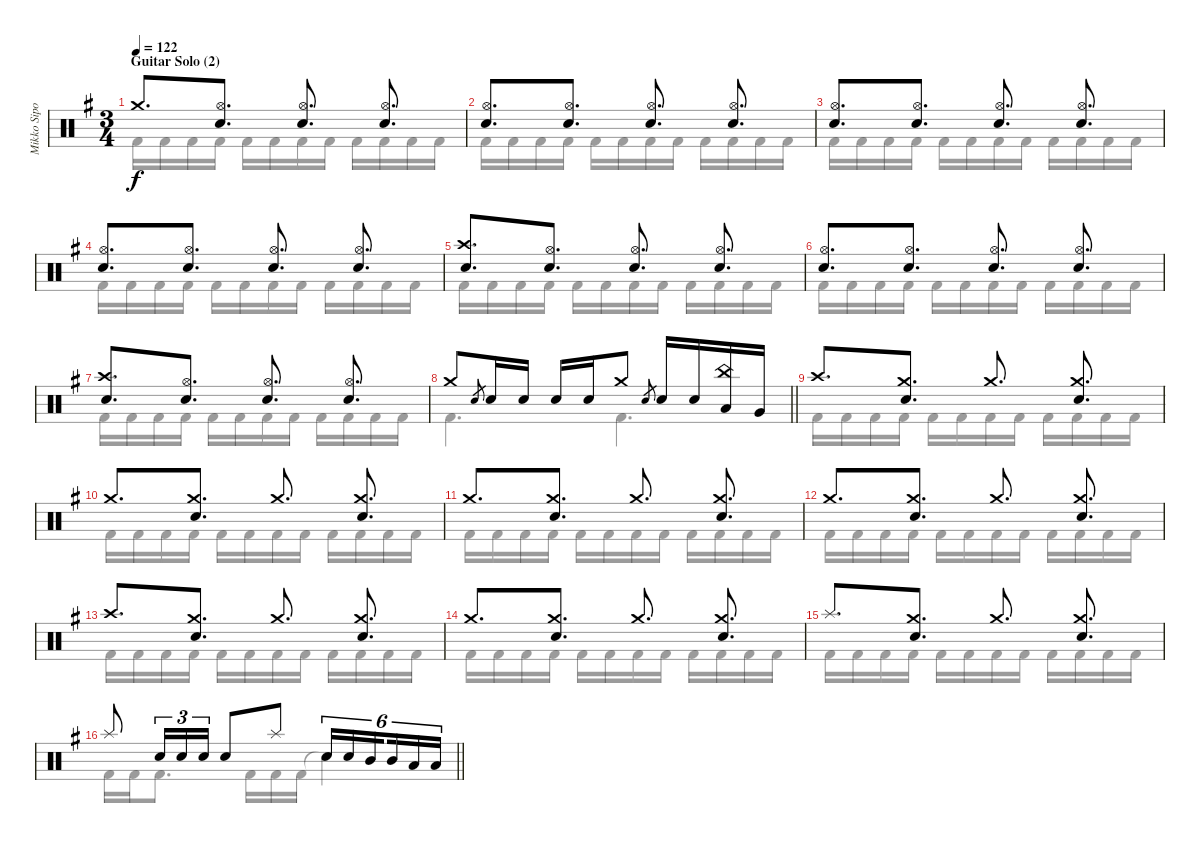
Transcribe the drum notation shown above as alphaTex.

\track ("Mikko Sipola - drums" "Mikko Sipo") {instrument percussion}
\staff {score}
\articulation defaults
\voice
\ts (3 4)
\section ("" "Guitar Solo (2)")
\tempo 122
\clef neutral
\ks eminor "Crash medium (hit)".8{d dy f}
("Hi-Hat (open)" "Electric Snare (hit)").8{d} ("Hi-Hat (open)" "Electric Snare (hit)").8{d} ("Hi-Hat (open)" "Electric Snare (hit)").8{d} |
("Hi-Hat (open)" "Electric Snare (hit)").8{d} ("Hi-Hat (open)" "Electric Snare (hit)").8{d} ("Hi-Hat (open)" "Electric Snare (hit)").8{d} ("Hi-Hat (open)" "Electric Snare (hit)").8{d} |
("Hi-Hat (open)" "Electric Snare (hit)").8{d} ("Hi-Hat (open)" "Electric Snare (hit)").8{d} ("Hi-Hat (open)" "Electric Snare (hit)").8{d} ("Hi-Hat (open)" "Electric Snare (hit)").8{d} |
("Hi-Hat (open)" "Electric Snare (hit)").8{d} ("Hi-Hat (open)" "Electric Snare (hit)").8{d} ("Hi-Hat (open)" "Electric Snare (hit)").8{d} ("Hi-Hat (open)" "Electric Snare (hit)").8{d} |
("Crash high (hit)" "Electric Snare (hit)").8{d} ("Hi-Hat (open)" "Electric Snare (hit)").8{d} ("Hi-Hat (open)" "Electric Snare (hit)").8{d} ("Hi-Hat (open)" "Electric Snare (hit)").8{d} |
("Hi-Hat (open)" "Electric Snare (hit)").8{d} ("Hi-Hat (open)" "Electric Snare (hit)").8{d} ("Hi-Hat (open)" "Electric Snare (hit)").8{d} ("Hi-Hat (open)" "Electric Snare (hit)").8{d} |
("Crash high (hit)" "Electric Snare (hit)").8{d} ("Hi-Hat (open)" "Electric Snare (hit)").8{d} ("Hi-Hat (open)" "Electric Snare (hit)").8{d} ("Hi-Hat (open)" "Electric Snare (hit)").8{d} |
\barLineRight lightlight "Crash medium (hit)".8 "Electric Snare (hit)".8{gr} "Electric Snare (hit)".16 "Electric Snare (hit)".16 "Electric Snare (hit)".16 "Electric Snare (hit)".16 "Crash medium (hit)".8 "Electric Snare (hit)".8{gr} "Electric Snare (hit)".16 "Electric Snare (hit)".16
("China (hit)" "Low Tom (hit)").16 "Very Low Tom (hit)".16 |
\section ("" "")
"Crash high (hit)".8{d} ("Crash medium (hit)" "Electric Snare (hit)").8{d} "Crash medium (hit)".8{d} ("Crash medium (hit)" "Electric Snare (hit)").8{d} |
"Crash medium (hit)".8{d} ("Crash medium (hit)" "Electric Snare (hit)").8{d} "Crash medium (hit)".8{d} ("Crash medium (hit)" "Electric Snare (hit)").8{d} |
"Crash medium (hit)".8{d} ("Crash medium (hit)" "Electric Snare (hit)").8{d} "Crash medium (hit)".8{d} ("Crash medium (hit)" "Electric Snare (hit)").8{d} |
"Crash medium (hit)".8{d} ("Crash medium (hit)" "Electric Snare (hit)").8{d} "Crash medium (hit)".8{d} ("Crash medium (hit)" "Electric Snare (hit)").8{d} |
"Crash high (hit)".8{d} ("Crash medium (hit)" "Electric Snare (hit)").8{d} "Crash medium (hit)".8{d} ("Crash medium (hit)" "Electric Snare (hit)").8{d} |
"Crash medium (hit)".8{d} ("Crash medium (hit)" "Electric Snare (hit)").8{d} "Crash medium (hit)".8{d} ("Crash medium (hit)" "Electric Snare (hit)").8{d} |
"Splash (hit)".8{d} ("Crash medium (hit)" "Electric Snare (hit)").8{d} "Crash medium (hit)".8{d} ("Crash medium (hit)" "Electric Snare (hit)").8{d} |
\barLineRight lightlight "Splash (hit)".8 "Electric Snare (hit)".16{tu (3 2)} "Electric Snare (hit)".16{tu (3 2)} "Electric Snare (hit)".16{tu (3 2)} "Electric Snare (hit)".8 "Splash (hit)".8 "Electric Snare (hit)".16{tu (6 4)} "Electric Snare (hit)".16{tu (6 4)} "Mid Tom (hit)".16{tu (6 4) beam splitsecondary} "Mid Tom (hit)".16{tu (6 4)} "Low Tom (hit)".16{tu (6 4)} "Low Tom (hit)".16{tu (6 4)}
\voice
\clef neutral
\ottava regular
\simile none
\ks eminor "Kick (hit) 2".16{dy f} "Kick (hit) 2".16 "Kick (hit) 2".16 "Kick (hit) 2".16 "Kick (hit) 2".16 "Kick (hit) 2".16 "Kick (hit) 2".16 "Kick (hit) 2".16 "Kick (hit) 2".16 "Kick (hit) 2".16 "Kick (hit) 2".16 "Kick (hit) 2".16
|
"Kick (hit) 2".16 "Kick (hit) 2".16 "Kick (hit) 2".16 "Kick (hit) 2".16 "Kick (hit) 2".16 "Kick (hit) 2".16 "Kick (hit) 2".16 "Kick (hit) 2".16 "Kick (hit) 2".16 "Kick (hit) 2".16 "Kick (hit) 2".16 "Kick (hit) 2".16 |
"Kick (hit) 2".16 "Kick (hit) 2".16 "Kick (hit) 2".16 "Kick (hit) 2".16 "Kick (hit) 2".16 "Kick (hit) 2".16 "Kick (hit) 2".16 "Kick (hit) 2".16 "Kick (hit) 2".16 "Kick (hit) 2".16 "Kick (hit) 2".16 "Kick (hit) 2".16 |
"Kick (hit) 2".16 "Kick (hit) 2".16 "Kick (hit) 2".16 "Kick (hit) 2".16 "Kick (hit) 2".16 "Kick (hit) 2".16 "Kick (hit) 2".16 "Kick (hit) 2".16 "Kick (hit) 2".16 "Kick (hit) 2".16 "Kick (hit) 2".16 "Kick (hit) 2".16 |
"Kick (hit) 2".16 "Kick (hit) 2".16 "Kick (hit) 2".16 "Kick (hit) 2".16 "Kick (hit) 2".16 "Kick (hit) 2".16 "Kick (hit) 2".16 "Kick (hit) 2".16 "Kick (hit) 2".16 "Kick (hit) 2".16 "Kick (hit) 2".16 "Kick (hit) 2".16 |
"Kick (hit) 2".16 "Kick (hit) 2".16 "Kick (hit) 2".16 "Kick (hit) 2".16 "Kick (hit) 2".16 "Kick (hit) 2".16 "Kick (hit) 2".16 "Kick (hit) 2".16 "Kick (hit) 2".16 "Kick (hit) 2".16 "Kick (hit) 2".16 "Kick (hit) 2".16 |
"Kick (hit) 2".16 "Kick (hit) 2".16 "Kick (hit) 2".16 "Kick (hit) 2".16 "Kick (hit) 2".16 "Kick (hit) 2".16 "Kick (hit) 2".16 "Kick (hit) 2".16 "Kick (hit) 2".16 "Kick (hit) 2".16 "Kick (hit) 2".16 "Kick (hit) 2".16 |
\barLineRight lightlight "Kick (hit) 2".4{d} "Kick (hit) 2".4{d}
|
"Kick (hit) 2".16 "Kick (hit) 2".16 "Kick (hit) 2".16 "Kick (hit) 2".16 "Kick (hit) 2".16 "Kick (hit) 2".16 "Kick (hit) 2".16 "Kick (hit) 2".16 "Kick (hit) 2".16 "Kick (hit) 2".16 "Kick (hit) 2".16 "Kick (hit) 2".16 |
"Kick (hit) 2".16 "Kick (hit) 2".16 "Kick (hit) 2".16 "Kick (hit) 2".16 "Kick (hit) 2".16 "Kick (hit) 2".16 "Kick (hit) 2".16 "Kick (hit) 2".16 "Kick (hit) 2".16 "Kick (hit) 2".16 "Kick (hit) 2".16 "Kick (hit) 2".16 |
"Kick (hit) 2".16 "Kick (hit) 2".16 "Kick (hit) 2".16 "Kick (hit) 2".16 "Kick (hit) 2".16 "Kick (hit) 2".16 "Kick (hit) 2".16 "Kick (hit) 2".16 "Kick (hit) 2".16 "Kick (hit) 2".16 "Kick (hit) 2".16 "Kick (hit) 2".16 |
"Kick (hit) 2".16 "Kick (hit) 2".16 "Kick (hit) 2".16 "Kick (hit) 2".16 "Kick (hit) 2".16 "Kick (hit) 2".16 "Kick (hit) 2".16 "Kick (hit) 2".16 "Kick (hit) 2".16 "Kick (hit) 2".16 "Kick (hit) 2".16 "Kick (hit) 2".16 |
"Kick (hit) 2".16 "Kick (hit) 2".16 "Kick (hit) 2".16 "Kick (hit) 2".16 "Kick (hit) 2".16 "Kick (hit) 2".16 "Kick (hit) 2".16 "Kick (hit) 2".16 "Kick (hit) 2".16 "Kick (hit) 2".16 "Kick (hit) 2".16 "Kick (hit) 2".16 |
"Kick (hit) 2".16 "Kick (hit) 2".16 "Kick (hit) 2".16 "Kick (hit) 2".16 "Kick (hit) 2".16 "Kick (hit) 2".16 "Kick (hit) 2".16 "Kick (hit) 2".16 "Kick (hit) 2".16 "Kick (hit) 2".16 "Kick (hit) 2".16 "Kick (hit) 2".16 |
"Kick (hit) 2".16 "Kick (hit) 2".16 "Kick (hit) 2".16 "Kick (hit) 2".16 "Kick (hit) 2".16 "Kick (hit) 2".16 "Kick (hit) 2".16 "Kick (hit) 2".16 "Kick (hit) 2".16 "Kick (hit) 2".16 "Kick (hit) 2".16 "Kick (hit) 2".16 |
\barLineRight lightlight "Kick (hit) 2".16 "Kick (hit) 2".16 "Kick (hit) 2".8{d} "Kick (hit) 2".16 "Kick (hit) 2".16 "Kick (hit) 2".16 "Snare (hit)"{t}.4
